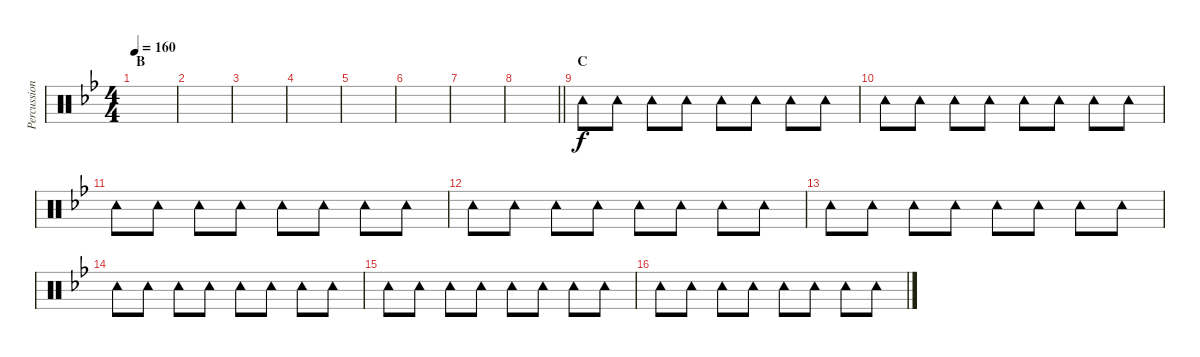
\track ("Percussion (Tainaka Ritsu)" "Percussion") {instrument percussion}
\staff {score}
\articulation defaults
\ts (4 4)
\section ("" "B")
\tempo 160
\clef neutral
\ks bb
|
|
|
|
|
|
|
\barLineRight lightlight
|
\section ("" "C")
"Tambourine (hit)".8 "Tambourine (hit)".8 "Tambourine (hit)".8 "Tambourine (hit)".8 "Tambourine (hit)".8 "Tambourine (hit)".8 "Tambourine (hit)".8 "Tambourine (hit)".8 |
"Tambourine (hit)".8 "Tambourine (hit)".8 "Tambourine (hit)".8 "Tambourine (hit)".8 "Tambourine (hit)".8 "Tambourine (hit)".8 "Tambourine (hit)".8 "Tambourine (hit)".8 |
"Tambourine (hit)".8 "Tambourine (hit)".8 "Tambourine (hit)".8 "Tambourine (hit)".8 "Tambourine (hit)".8 "Tambourine (hit)".8 "Tambourine (hit)".8 "Tambourine (hit)".8 |
"Tambourine (hit)".8 "Tambourine (hit)".8 "Tambourine (hit)".8 "Tambourine (hit)".8 "Tambourine (hit)".8 "Tambourine (hit)".8 "Tambourine (hit)".8 "Tambourine (hit)".8 |
"Tambourine (hit)".8 "Tambourine (hit)".8 "Tambourine (hit)".8 "Tambourine (hit)".8 "Tambourine (hit)".8 "Tambourine (hit)".8 "Tambourine (hit)".8 "Tambourine (hit)".8 |
"Tambourine (hit)".8 "Tambourine (hit)".8 "Tambourine (hit)".8 "Tambourine (hit)".8 "Tambourine (hit)".8 "Tambourine (hit)".8 "Tambourine (hit)".8 "Tambourine (hit)".8 |
"Tambourine (hit)".8 "Tambourine (hit)".8 "Tambourine (hit)".8 "Tambourine (hit)".8 "Tambourine (hit)".8 "Tambourine (hit)".8 "Tambourine (hit)".8 "Tambourine (hit)".8 |
"Tambourine (hit)".8 "Tambourine (hit)".8 "Tambourine (hit)".8 "Tambourine (hit)".8 "Tambourine (hit)".8 "Tambourine (hit)".8 "Tambourine (hit)".8 "Tambourine (hit)".8
